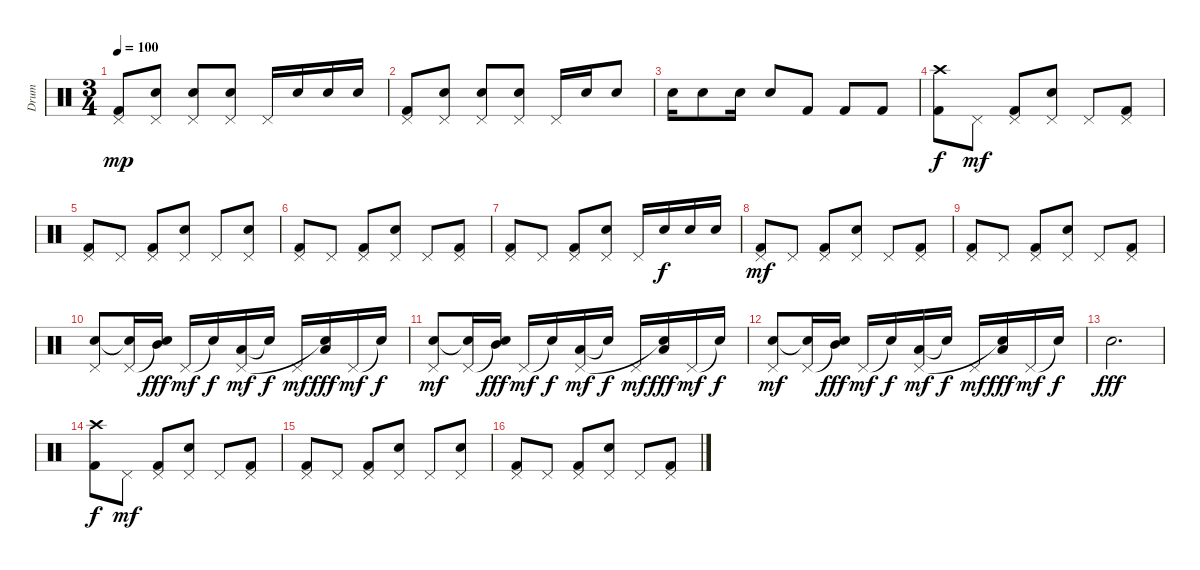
\track ("Drum" "Drum") {instrument percussion}
\staff {score}
\articulation defaults
\ts (3 4)
\tempo 100
\clef neutral
\ks c
("Kick (hit) 2" "Pedal Hi-Hat (hit)").8{dy mp} ("Snare (hit) 2" "Pedal Hi-Hat (hit)").8 ("Snare (hit) 2" "Pedal Hi-Hat (hit)").8 ("Snare (hit) 2" "Pedal Hi-Hat (hit)").8 "Pedal Hi-Hat (hit)".16 "Snare (hit) 2".16 "Snare (hit) 2".16 "Snare (hit) 2".16 |
("Kick (hit) 2" "Pedal Hi-Hat (hit)").8 ("Snare (hit) 2" "Pedal Hi-Hat (hit)").8 ("Snare (hit) 2" "Pedal Hi-Hat (hit)").8 ("Snare (hit) 2" "Pedal Hi-Hat (hit)").8 "Pedal Hi-Hat (hit)".16 "Snare (hit) 2".16 "Snare (hit) 2".8 |
"Snare (hit) 2".16 "Snare (hit) 2".8 "Snare (hit) 2".16 "Snare (hit) 2".8 "Kick (hit) 2".8 "Kick (hit) 2".8 "Kick (hit) 2".8 |
("Kick (hit) 2" "Crash high (hit)").8{dy f} "Pedal Hi-Hat (hit)".8{dy mf} ("Kick (hit) 2" "Pedal Hi-Hat (hit)").8 ("Snare (hit) 2" "Pedal Hi-Hat (hit)").8 "Pedal Hi-Hat (hit)".8 ("Kick (hit) 2" "Pedal Hi-Hat (hit)").8 |
("Kick (hit) 2" "Pedal Hi-Hat (hit)").8 "Pedal Hi-Hat (hit)".8 ("Kick (hit) 2" "Pedal Hi-Hat (hit)").8 ("Snare (hit) 2" "Pedal Hi-Hat (hit)").8 "Pedal Hi-Hat (hit)".8 ("Snare (hit) 2" "Pedal Hi-Hat (hit)").8 |
("Kick (hit) 2" "Pedal Hi-Hat (hit)").8 "Pedal Hi-Hat (hit)".8 ("Kick (hit) 2" "Pedal Hi-Hat (hit)").8 ("Snare (hit) 2" "Pedal Hi-Hat (hit)").8 "Pedal Hi-Hat (hit)".8 ("Kick (hit) 2" "Pedal Hi-Hat (hit)").8 |
("Kick (hit) 2" "Pedal Hi-Hat (hit)").8 "Pedal Hi-Hat (hit)".8 ("Kick (hit) 2" "Pedal Hi-Hat (hit)").8 ("Snare (hit) 2" "Pedal Hi-Hat (hit)").8 "Pedal Hi-Hat (hit)".16 "Snare (hit) 2".16{dy f} "Snare (hit) 2".16 "Snare (hit) 2".16 |
("Kick (hit) 2" "Pedal Hi-Hat (hit)").8{dy mf} "Pedal Hi-Hat (hit)".8 ("Kick (hit) 2" "Pedal Hi-Hat (hit)").8 ("Snare (hit) 2" "Pedal Hi-Hat (hit)").8 "Pedal Hi-Hat (hit)".8 ("Kick (hit) 2" "Pedal Hi-Hat (hit)").8 |
("Kick (hit) 2" "Pedal Hi-Hat (hit)").8 "Pedal Hi-Hat (hit)".8 ("Kick (hit) 2" "Pedal Hi-Hat (hit)").8 ("Snare (hit) 2" "Pedal Hi-Hat (hit)").8 "Pedal Hi-Hat (hit)".8 ("Kick (hit) 2" "Pedal Hi-Hat (hit)").8 |
("Snare (hit) 2" "Pedal Hi-Hat (hit)").8 ("Snare (hit)"{t} "Pedal Hi-Hat (hit)").16 ("Mid Tom (hit)" "Snare (hit)"{t}).16{dy fff} "Pedal Hi-Hat (hit)".16{dy mf} "Snare (hit)"{t}.16{dy f} ("Low Tom (hit)" "Pedal Hi-Hat (hit)").16{dy mf} "Snare (hit)"{t}.16{dy f} "Pedal Hi-Hat (hit)".16{dy mf} ("Low Floor Tom (hit)" "Snare (hit)"{t}).16{dy fff} "Pedal Hi-Hat (hit)".16{dy mf} "Snare (hit)"{t}.16{dy f} |
("Snare (hit) 2" "Pedal Hi-Hat (hit)").8{dy mf} ("Snare (hit)"{t} "Pedal Hi-Hat (hit)").16 ("Mid Tom (hit)" "Snare (hit)"{t}).16{dy fff} "Pedal Hi-Hat (hit)".16{dy mf} "Snare (hit)"{t}.16{dy f} ("Low Tom (hit)" "Pedal Hi-Hat (hit)").16{dy mf} "Snare (hit)"{t}.16{dy f} "Pedal Hi-Hat (hit)".16{dy mf} ("Low Floor Tom (hit)" "Snare (hit)"{t}).16{dy fff} "Pedal Hi-Hat (hit)".16{dy mf} "Snare (hit)"{t}.16{dy f} |
("Snare (hit) 2" "Pedal Hi-Hat (hit)").8{dy mf} ("Snare (hit)"{t} "Pedal Hi-Hat (hit)").16 ("Mid Tom (hit)" "Snare (hit)"{t}).16{dy fff} "Pedal Hi-Hat (hit)".16{dy mf} "Snare (hit)"{t}.16{dy f} ("Low Tom (hit)" "Pedal Hi-Hat (hit)").16{dy mf} "Snare (hit)"{t}.16{dy f} "Pedal Hi-Hat (hit)".16{dy mf} ("Low Floor Tom (hit)" "Snare (hit)"{t}).16{dy fff} "Pedal Hi-Hat (hit)".16{dy mf} "Snare (hit)"{t}.16{dy f} |
"Snare (hit) 2".2{d dy fff} |
("Kick (hit) 2" "Crash high (hit)").8{dy f} "Pedal Hi-Hat (hit)".8{dy mf} ("Kick (hit) 2" "Pedal Hi-Hat (hit)").8 ("Snare (hit) 2" "Pedal Hi-Hat (hit)").8 "Pedal Hi-Hat (hit)".8 ("Kick (hit) 2" "Pedal Hi-Hat (hit)").8 |
("Kick (hit) 2" "Pedal Hi-Hat (hit)").8 "Pedal Hi-Hat (hit)".8 ("Kick (hit) 2" "Pedal Hi-Hat (hit)").8 ("Snare (hit) 2" "Pedal Hi-Hat (hit)").8 "Pedal Hi-Hat (hit)".8 ("Snare (hit) 2" "Pedal Hi-Hat (hit)").8 |
("Kick (hit) 2" "Pedal Hi-Hat (hit)").8 "Pedal Hi-Hat (hit)".8 ("Kick (hit) 2" "Pedal Hi-Hat (hit)").8 ("Snare (hit) 2" "Pedal Hi-Hat (hit)").8 "Pedal Hi-Hat (hit)".8 ("Kick (hit) 2" "Pedal Hi-Hat (hit)").8
